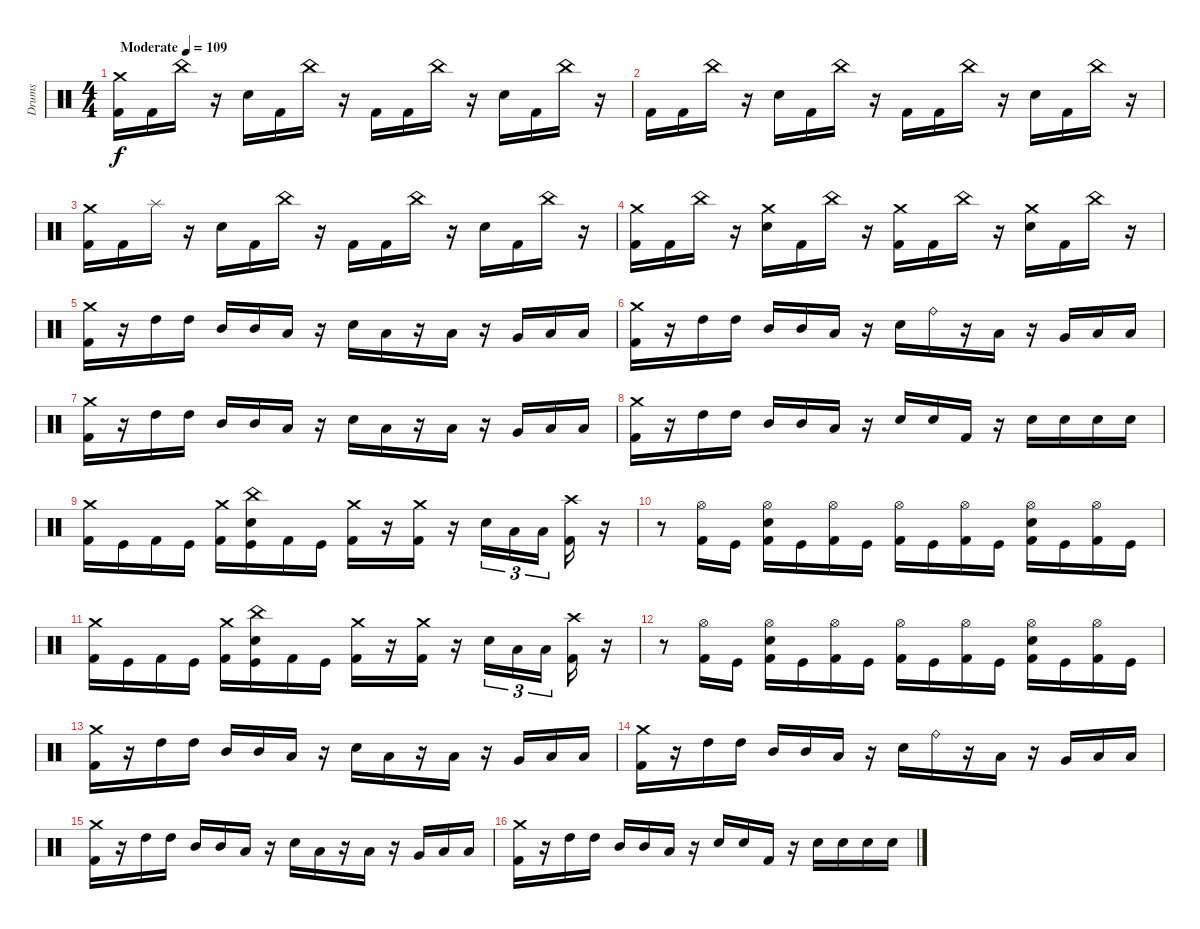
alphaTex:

\track ("Drums" "Drums") {instrument percussion}
\staff {score}
\articulation defaults
\ts (4 4)
\tempo (109 "Moderate")
\clef neutral
\ks c
("Crash medium (hit)" "Kick (hit) 2").16{dy f} "Kick (hit) 2".16 "China (hit)".16 r.16 "Electric Snare (hit)".16 "Kick (hit) 2".16 "China (hit)".16 r.16 "Kick (hit) 2".16 "Kick (hit) 2".16 "China (hit)".16 r.16 "Electric Snare (hit)".16 "Kick (hit) 2".16 "China (hit)".16 r.16 |
"Kick (hit) 2".16 "Kick (hit) 2".16 "China (hit)".16 r.16 "Electric Snare (hit)".16 "Kick (hit) 2".16 "China (hit)".16 r.16 "Kick (hit) 2".16 "Kick (hit) 2".16 "China (hit)".16 r.16 "Electric Snare (hit)".16 "Kick (hit) 2".16 "China (hit)".16 r.16 |
("Crash medium (hit)" "Kick (hit) 2").16 "Kick (hit) 2".16 "Splash (hit)".16 r.16 "Electric Snare (hit)".16 "Kick (hit) 2".16 "China (hit)".16 r.16 "Kick (hit) 2".16 "Kick (hit) 2".16 "China (hit)".16 r.16 "Electric Snare (hit)".16 "Kick (hit) 2".16 "China (hit)".16 r.16 |
("Crash medium (hit)" "Kick (hit) 2").16 "Kick (hit) 2".16 "China (hit)".16 r.16 ("Crash medium (hit)" "Electric Snare (hit)").16 "Kick (hit) 2".16 "China (hit)".16 r.16 ("Crash medium (hit)" "Kick (hit) 2").16 "Kick (hit) 2".16 "China (hit)".16 r.16 ("Crash medium (hit)" "Electric Snare (hit)").16 "Kick (hit) 2".16 "China (hit)".16 r.16 |
("Kick (hit) 2" "Crash medium (hit)").16 r.16 "High Tom (hit)".16 "High Tom (hit)".16 "Mid Tom (hit)".16 "Mid Tom (hit)".16 "Low Tom (hit)".16 r.16 "Electric Snare (hit)".16 "Low Tom (hit)".16 r.16 "Low Tom (hit)".16 r.16 "Very Low Tom (hit)".16 "Low Floor Tom (hit)".16 "Low Floor Tom (hit)".16 |
("Kick (hit) 2" "Crash medium (hit)").16 r.16 "High Tom (hit)".16 "High Tom (hit)".16 "Mid Tom (hit)".16 "Mid Tom (hit)".16 "Low Tom (hit)".16 r.16 "Electric Snare (hit)".16 "Ride (bell)".16 r.16 "Low Tom (hit)".16 r.16 "Very Low Tom (hit)".16 "Low Floor Tom (hit)".16 "Low Floor Tom (hit)".16 |
("Kick (hit) 2" "Crash medium (hit)").16 r.16 "High Tom (hit)".16 "High Tom (hit)".16 "Mid Tom (hit)".16 "Mid Tom (hit)".16 "Low Tom (hit)".16 r.16 "Electric Snare (hit)".16 "Low Tom (hit)".16 r.16 "Low Tom (hit)".16 r.16 "Very Low Tom (hit)".16 "Low Floor Tom (hit)".16 "Low Floor Tom (hit)".16 |
("Kick (hit) 2" "Crash medium (hit)").16 r.16 "High Tom (hit)".16 "High Tom (hit)".16 "Mid Tom (hit)".16 "Mid Tom (hit)".16 "Low Tom (hit)".16 r.16 "Electric Snare (hit)".16 "Electric Snare (hit)".16 "Kick (hit) 2".16 r.16 "Electric Snare (hit)".16 "Electric Snare (hit)".16 "Electric Snare (hit)".16 "Electric Snare (hit)".16 |
("Crash medium (hit)" "Kick (hit) 2").16 "Kick (hit)".16 "Kick (hit) 2".16 "Kick (hit)".16 ("Crash medium (hit)" "Kick (hit) 2").16 ("China (hit)" "Electric Snare (hit)" "Kick (hit)").16 "Kick (hit) 2".16 "Kick (hit)".16 ("Crash medium (hit)" "Kick (hit) 2").16 r.16 ("Crash medium (hit)" "Kick (hit) 2").16 r.16 "Electric Snare (hit)".16{tu (3 2)} "Low Tom (hit)".16{tu (3 2)} "Low Tom (hit)".16{tu (3 2) beam splitsecondary} ("Crash high (hit)" "Kick (hit) 2").16 r.16 |
r.8 ("Hi-Hat (open)" "Kick (hit) 2").16 "Kick (hit)".16 ("Electric Snare (hit)" "Hi-Hat (open)" "Kick (hit) 2").16 "Kick (hit)".16 ("Hi-Hat (open)" "Kick (hit) 2").16 "Kick (hit)".16 ("Hi-Hat (open)" "Kick (hit) 2").16 "Kick (hit)".16 ("Hi-Hat (open)" "Kick (hit) 2").16 "Kick (hit)".16 ("Electric Snare (hit)" "Hi-Hat (open)" "Kick (hit) 2").16 "Kick (hit)".16 ("Hi-Hat (open)" "Kick (hit) 2").16 "Kick (hit)".16 |
("Crash medium (hit)" "Kick (hit) 2").16 "Kick (hit)".16 "Kick (hit) 2".16 "Kick (hit)".16 ("Crash medium (hit)" "Kick (hit) 2").16 ("China (hit)" "Electric Snare (hit)" "Kick (hit)").16 "Kick (hit) 2".16 "Kick (hit)".16 ("Crash medium (hit)" "Kick (hit) 2").16 r.16 ("Crash medium (hit)" "Kick (hit) 2").16 r.16 "Electric Snare (hit)".16{tu (3 2)} "Low Tom (hit)".16{tu (3 2)} "Low Tom (hit)".16{tu (3 2) beam splitsecondary} ("Crash high (hit)" "Kick (hit) 2").16 r.16 |
r.8 ("Hi-Hat (open)" "Kick (hit) 2").16 "Kick (hit)".16 ("Electric Snare (hit)" "Hi-Hat (open)" "Kick (hit) 2").16 "Kick (hit)".16 ("Hi-Hat (open)" "Kick (hit) 2").16 "Kick (hit)".16 ("Hi-Hat (open)" "Kick (hit) 2").16 "Kick (hit)".16 ("Hi-Hat (open)" "Kick (hit) 2").16 "Kick (hit)".16 ("Electric Snare (hit)" "Hi-Hat (open)" "Kick (hit) 2").16 "Kick (hit)".16 ("Hi-Hat (open)" "Kick (hit) 2").16 "Kick (hit)".16 |
("Kick (hit) 2" "Crash medium (hit)").16 r.16 "High Tom (hit)".16 "High Tom (hit)".16 "Mid Tom (hit)".16 "Mid Tom (hit)".16 "Low Tom (hit)".16 r.16 "Electric Snare (hit)".16 "Low Tom (hit)".16 r.16 "Low Tom (hit)".16 r.16 "Very Low Tom (hit)".16 "Low Floor Tom (hit)".16 "Low Floor Tom (hit)".16 |
("Kick (hit) 2" "Crash medium (hit)").16 r.16 "High Tom (hit)".16 "High Tom (hit)".16 "Mid Tom (hit)".16 "Mid Tom (hit)".16 "Low Tom (hit)".16 r.16 "Electric Snare (hit)".16 "Ride (bell)".16 r.16 "Low Tom (hit)".16 r.16 "Very Low Tom (hit)".16 "Low Floor Tom (hit)".16 "Low Floor Tom (hit)".16 |
("Kick (hit) 2" "Crash medium (hit)").16 r.16 "High Tom (hit)".16 "High Tom (hit)".16 "Mid Tom (hit)".16 "Mid Tom (hit)".16 "Low Tom (hit)".16 r.16 "Electric Snare (hit)".16 "Low Tom (hit)".16 r.16 "Low Tom (hit)".16 r.16 "Very Low Tom (hit)".16 "Low Floor Tom (hit)".16 "Low Floor Tom (hit)".16 |
("Kick (hit) 2" "Crash medium (hit)").16 r.16 "High Tom (hit)".16 "High Tom (hit)".16 "Mid Tom (hit)".16 "Mid Tom (hit)".16 "Low Tom (hit)".16 r.16 "Electric Snare (hit)".16 "Electric Snare (hit)".16 "Kick (hit) 2".16 r.16 "Electric Snare (hit)".16 "Electric Snare (hit)".16 "Electric Snare (hit)".16 "Electric Snare (hit)".16
